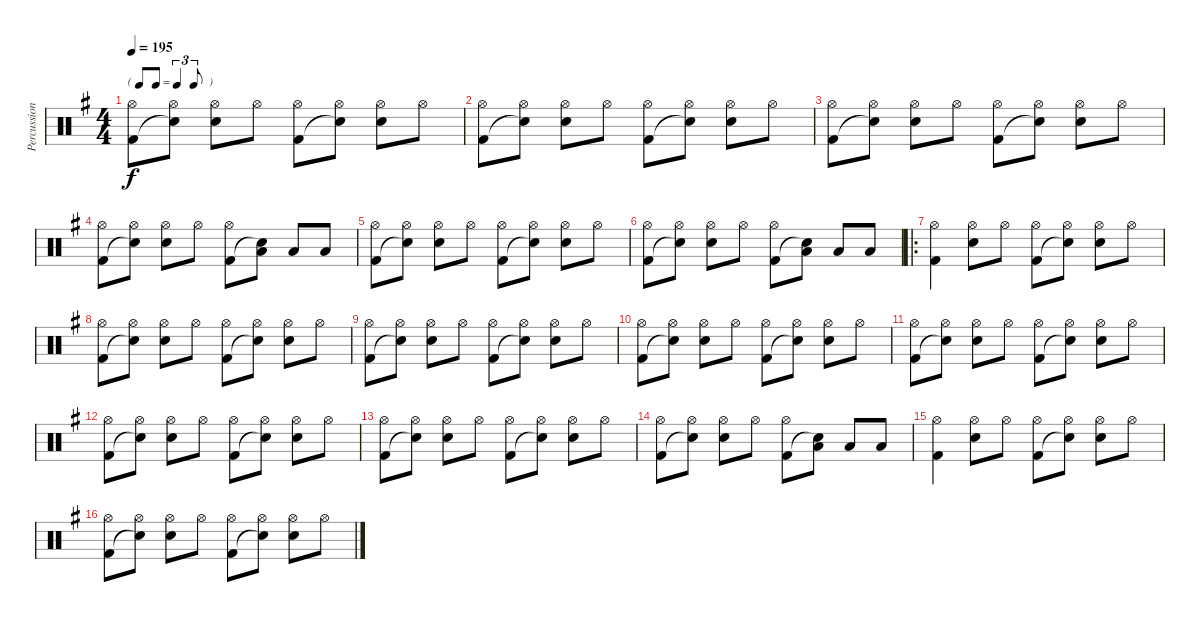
\track ("Percussion" "Percussion") {instrument percussion}
\staff {score}
\articulation defaults
\ts (4 4)
\tf triplet8th
\tempo 195
\clef neutral
\ks g
("Hi-Hat (open)" "Kick (hit) 2").8{dy f} ("Hi-Hat (open)" "Snare (hit)"{t}).8 ("Hi-Hat (open)" "Snare (hit) 2").8 "Hi-Hat (open)".8 ("Hi-Hat (open)" "Kick (hit) 2").8 ("Hi-Hat (open)" "Snare (hit)"{t}).8 ("Hi-Hat (open)" "Snare (hit) 2").8 "Hi-Hat (open)".8 |
("Hi-Hat (open)" "Kick (hit) 2").8 ("Hi-Hat (open)" "Snare (hit)"{t}).8 ("Hi-Hat (open)" "Snare (hit) 2").8 "Hi-Hat (open)".8 ("Hi-Hat (open)" "Kick (hit) 2").8 ("Hi-Hat (open)" "Snare (hit)"{t}).8 ("Hi-Hat (open)" "Snare (hit) 2").8 "Hi-Hat (open)".8 |
("Hi-Hat (open)" "Kick (hit) 2").8 ("Hi-Hat (open)" "Snare (hit)"{t}).8 ("Hi-Hat (open)" "Snare (hit) 2").8 "Hi-Hat (open)".8 ("Hi-Hat (open)" "Kick (hit) 2").8 ("Hi-Hat (open)" "Snare (hit)"{t}).8 ("Hi-Hat (open)" "Snare (hit) 2").8 "Hi-Hat (open)".8 |
("Hi-Hat (open)" "Kick (hit) 2").8 ("Hi-Hat (open)" "Snare (hit)"{t}).8 ("Hi-Hat (open)" "Snare (hit) 2").8 "Hi-Hat (open)".8 ("Hi-Hat (open)" "Kick (hit) 2").8 ("Low Tom (hit)" "Snare (hit)"{t}).8 "Low Tom (hit)".8 "Low Tom (hit)".8 |
("Hi-Hat (open)" "Kick (hit) 2").8 ("Hi-Hat (open)" "Snare (hit)"{t}).8 ("Hi-Hat (open)" "Snare (hit) 2").8 "Hi-Hat (open)".8 ("Hi-Hat (open)" "Kick (hit) 2").8 ("Hi-Hat (open)" "Snare (hit)"{t}).8 ("Hi-Hat (open)" "Snare (hit) 2").8 "Hi-Hat (open)".8 |
("Hi-Hat (open)" "Kick (hit) 2").8 ("Hi-Hat (open)" "Snare (hit)"{t}).8 ("Hi-Hat (open)" "Snare (hit) 2").8 "Hi-Hat (open)".8 ("Hi-Hat (open)" "Kick (hit) 2").8 ("Low Tom (hit)" "Snare (hit)"{t}).8 "Low Tom (hit)".8 "Low Tom (hit)".8 |
\ro
("Hi-Hat (open)" "Kick (hit) 2").4 ("Hi-Hat (open)" "Snare (hit) 2").8 "Hi-Hat (open)".8 ("Hi-Hat (open)" "Kick (hit) 2").8 ("Hi-Hat (open)" "Snare (hit)"{t}).8 ("Hi-Hat (open)" "Snare (hit) 2").8 "Hi-Hat (open)".8 |
("Hi-Hat (open)" "Kick (hit) 2").8 ("Hi-Hat (open)" "Snare (hit)"{t}).8 ("Hi-Hat (open)" "Snare (hit) 2").8 "Hi-Hat (open)".8 ("Hi-Hat (open)" "Kick (hit) 2").8 ("Hi-Hat (open)" "Snare (hit)"{t}).8 ("Hi-Hat (open)" "Snare (hit) 2").8 "Hi-Hat (open)".8 |
("Hi-Hat (open)" "Kick (hit) 2").8 ("Hi-Hat (open)" "Snare (hit)"{t}).8 ("Hi-Hat (open)" "Snare (hit) 2").8 "Hi-Hat (open)".8 ("Hi-Hat (open)" "Kick (hit) 2").8 ("Hi-Hat (open)" "Snare (hit)"{t}).8 ("Hi-Hat (open)" "Snare (hit) 2").8 "Hi-Hat (open)".8 |
("Hi-Hat (open)" "Kick (hit) 2").8 ("Hi-Hat (open)" "Snare (hit)"{t}).8 ("Hi-Hat (open)" "Snare (hit) 2").8 "Hi-Hat (open)".8 ("Hi-Hat (open)" "Kick (hit) 2").8 ("Hi-Hat (open)" "Snare (hit)"{t}).8 ("Hi-Hat (open)" "Snare (hit) 2").8 "Hi-Hat (open)".8 |
("Hi-Hat (open)" "Kick (hit) 2").8 ("Hi-Hat (open)" "Snare (hit)"{t}).8 ("Hi-Hat (open)" "Snare (hit) 2").8 "Hi-Hat (open)".8 ("Hi-Hat (open)" "Kick (hit) 2").8 ("Hi-Hat (open)" "Snare (hit)"{t}).8 ("Hi-Hat (open)" "Snare (hit) 2").8 "Hi-Hat (open)".8 |
("Hi-Hat (open)" "Kick (hit) 2").8 ("Hi-Hat (open)" "Snare (hit)"{t}).8 ("Hi-Hat (open)" "Snare (hit) 2").8 "Hi-Hat (open)".8 ("Hi-Hat (open)" "Kick (hit) 2").8 ("Hi-Hat (open)" "Snare (hit)"{t}).8 ("Hi-Hat (open)" "Snare (hit) 2").8 "Hi-Hat (open)".8 |
("Hi-Hat (open)" "Kick (hit) 2").8 ("Hi-Hat (open)" "Snare (hit)"{t}).8 ("Hi-Hat (open)" "Snare (hit) 2").8 "Hi-Hat (open)".8 ("Hi-Hat (open)" "Kick (hit) 2").8 ("Hi-Hat (open)" "Snare (hit)"{t}).8 ("Hi-Hat (open)" "Snare (hit) 2").8 "Hi-Hat (open)".8 |
("Hi-Hat (open)" "Kick (hit) 2").8 ("Hi-Hat (open)" "Snare (hit)"{t}).8 ("Hi-Hat (open)" "Snare (hit) 2").8 "Hi-Hat (open)".8 ("Hi-Hat (open)" "Kick (hit) 2").8 ("Low Tom (hit)" "Snare (hit)"{t}).8 "Low Tom (hit)".8 "Low Tom (hit)".8 |
("Hi-Hat (open)" "Kick (hit) 2").4 ("Hi-Hat (open)" "Snare (hit) 2").8 "Hi-Hat (open)".8 ("Hi-Hat (open)" "Kick (hit) 2").8 ("Hi-Hat (open)" "Snare (hit)"{t}).8 ("Hi-Hat (open)" "Snare (hit) 2").8 "Hi-Hat (open)".8 |
("Hi-Hat (open)" "Kick (hit) 2").8 ("Hi-Hat (open)" "Snare (hit)"{t}).8 ("Hi-Hat (open)" "Snare (hit) 2").8 "Hi-Hat (open)".8 ("Hi-Hat (open)" "Kick (hit) 2").8 ("Hi-Hat (open)" "Snare (hit)"{t}).8 ("Hi-Hat (open)" "Snare (hit) 2").8 "Hi-Hat (open)".8
